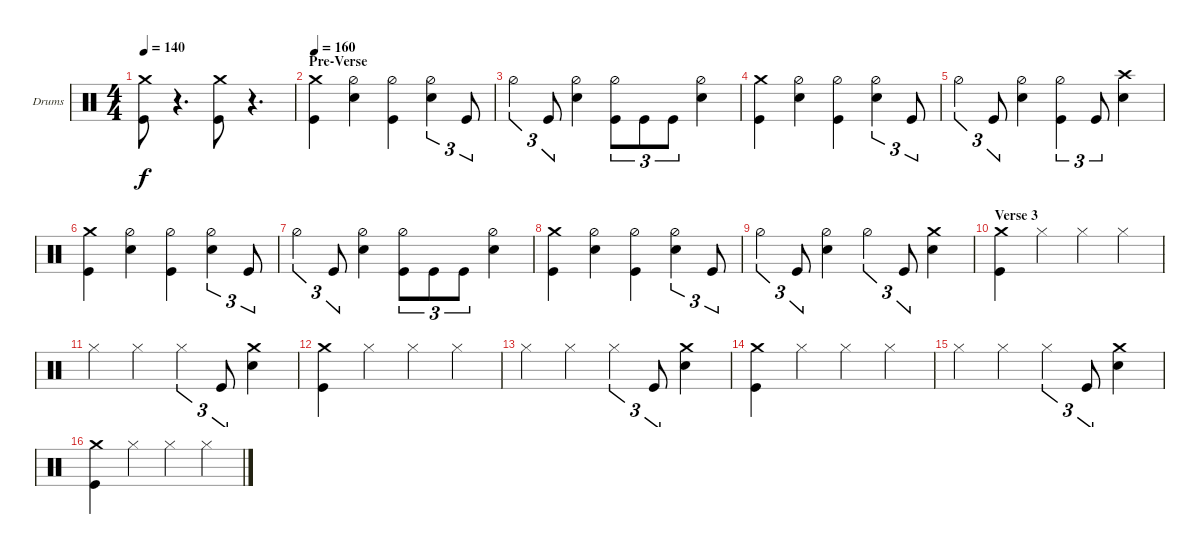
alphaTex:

\bracketExtendMode groupsimilarinstruments
\firstSystemTrackNameOrientation horizontal
\otherSystemsTrackNameOrientation horizontal
\track ("Drumkit" "Drums") {instrument percussion}
\staff {score}
\articulation defaults
\ts (4 4)
\tempo 140
\clef neutral
\ks c
("Kick (hit)" "Crash medium (hit)").8{dy f} r.4{d} ("Kick (hit)" "Crash medium (hit)").8 r.4{d} |
\section ("" "Pre-Verse")
\tempo 160
("Kick (hit)" "Crash medium (hit)").4 ("Snare (hit) 2" "Hi-Hat (half)").4 ("Kick (hit)" "Hi-Hat (half)").4 ("Snare (hit) 2" "Hi-Hat (half)").4{tu (3 2)} "Kick (hit)".8{tu (3 2)} |
"Hi-Hat (half)".4{tu (3 2)} "Kick (hit)".8{tu (3 2)} ("Snare (hit) 2" "Hi-Hat (half)").4 ("Kick (hit)" "Hi-Hat (half)").8{tu (3 2)} "Kick (hit)".8{tu (3 2)} "Kick (hit)".8{tu (3 2)} ("Snare (hit) 2" "Hi-Hat (half)").4 |
("Kick (hit)" "Crash medium (hit)").4 ("Snare (hit) 2" "Hi-Hat (half)").4 ("Kick (hit)" "Hi-Hat (half)").4 ("Snare (hit) 2" "Hi-Hat (half)").4{tu (3 2)} "Kick (hit)".8{tu (3 2)} |
"Hi-Hat (half)".4{tu (3 2)} "Kick (hit)".8{tu (3 2)} ("Snare (hit) 2" "Hi-Hat (half)").4 ("Kick (hit)" "Hi-Hat (half)").4{tu (3 2)} "Kick (hit)".8{tu (3 2)} ("Snare (hit) 2" "Crash high (hit)").4 |
("Kick (hit)" "Crash medium (hit)").4 ("Snare (hit) 2" "Hi-Hat (half)").4 ("Kick (hit)" "Hi-Hat (half)").4 ("Snare (hit) 2" "Hi-Hat (half)").4{tu (3 2)} "Kick (hit)".8{tu (3 2)} |
"Hi-Hat (half)".4{tu (3 2)} "Kick (hit)".8{tu (3 2)} ("Snare (hit) 2" "Hi-Hat (half)").4 ("Kick (hit)" "Hi-Hat (half)").8{tu (3 2)} "Kick (hit)".8{tu (3 2)} "Kick (hit)".8{tu (3 2)} ("Snare (hit) 2" "Hi-Hat (half)").4 |
("Kick (hit)" "Crash medium (hit)").4 ("Snare (hit) 2" "Hi-Hat (half)").4 ("Kick (hit)" "Hi-Hat (half)").4 ("Snare (hit) 2" "Hi-Hat (half)").4{tu (3 2)} "Kick (hit)".8{tu (3 2)} |
"Hi-Hat (half)".4{tu (3 2)} "Kick (hit)".8{tu (3 2)} ("Snare (hit) 2" "Hi-Hat (half)").4 "Hi-Hat (half)".4{tu (3 2)} "Kick (hit)".8{tu (3 2)} ("Snare (hit) 2" "Crash medium (hit)").4 |
\section ("" "Verse 3")
("Crash medium (hit)" "Kick (hit)").4 "Hi-Hat (closed)".4 "Hi-Hat (closed)".4 "Hi-Hat (closed)".4 |
"Hi-Hat (closed)".4 "Hi-Hat (closed)".4 "Hi-Hat (closed)".4{tu (3 2)} "Kick (hit)".8{tu (3 2)} ("Crash medium (hit)" "Snare (hit) 2").4 |
("Crash medium (hit)" "Kick (hit)").4 "Hi-Hat (closed)".4 "Hi-Hat (closed)".4 "Hi-Hat (closed)".4 |
"Hi-Hat (closed)".4 "Hi-Hat (closed)".4 "Hi-Hat (closed)".4{tu (3 2)} "Kick (hit)".8{tu (3 2)} ("Crash medium (hit)" "Snare (hit) 2").4 |
("Crash medium (hit)" "Kick (hit)").4 "Hi-Hat (closed)".4 "Hi-Hat (closed)".4 "Hi-Hat (closed)".4 |
"Hi-Hat (closed)".4 "Hi-Hat (closed)".4 "Hi-Hat (closed)".4{tu (3 2)} "Kick (hit)".8{tu (3 2)} ("Crash medium (hit)" "Snare (hit) 2").4 |
("Crash medium (hit)" "Kick (hit)").4 "Hi-Hat (closed)".4 "Hi-Hat (closed)".4 "Hi-Hat (closed)".4
